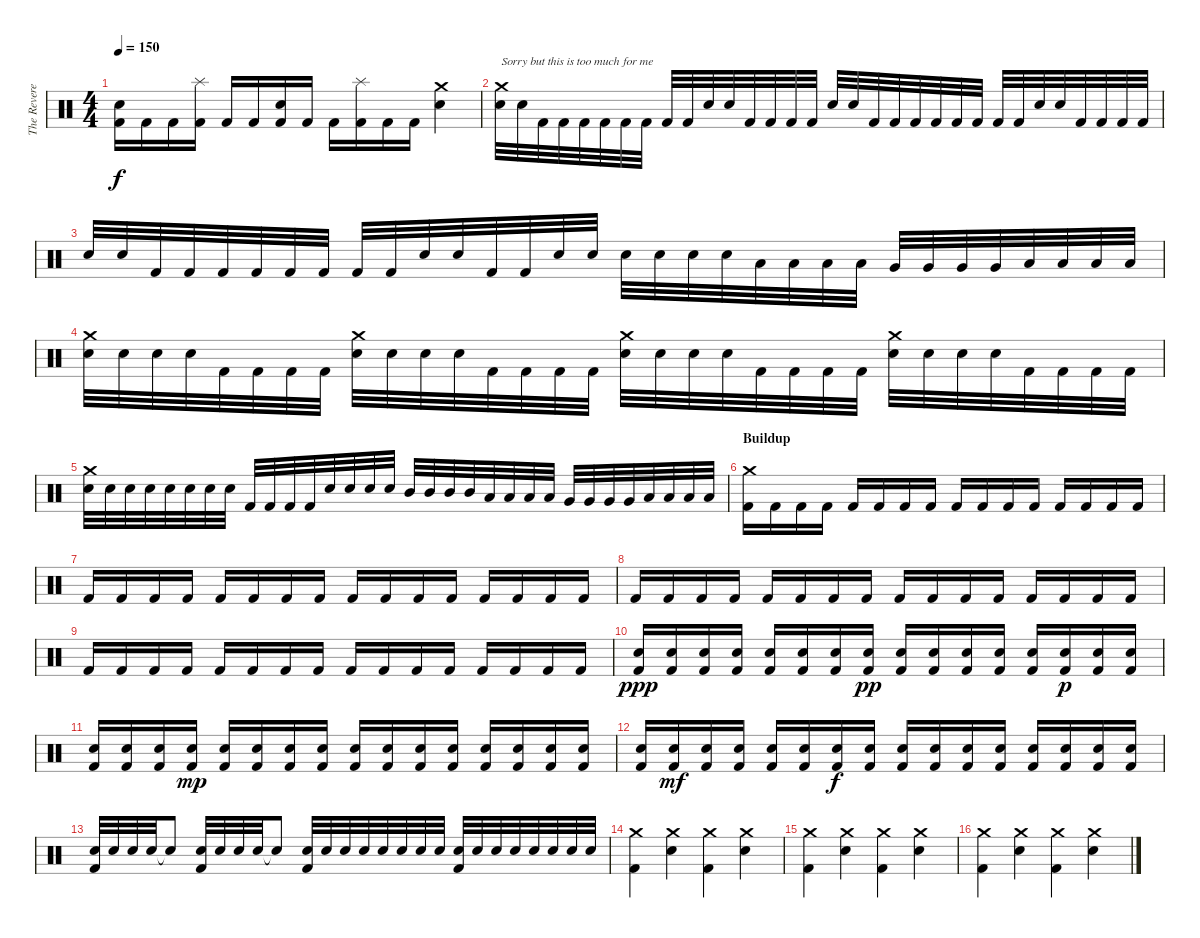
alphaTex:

\track ("The Reverend" "The Revere") {instrument percussion}
\staff {score}
\articulation defaults
\ts (4 4)
\tempo 150
\clef neutral
\ks c
("Electric Snare (hit)" "Kick (hit) 2").16{dy f} "Kick (hit) 2".16 "Kick (hit) 2".16 ("Splash (hit)" "Kick (hit) 2").16 "Kick (hit) 2".16 "Kick (hit) 2".16 ("Electric Snare (hit)" "Kick (hit) 2").16 "Kick (hit) 2".16 "Kick (hit) 2".16 ("Splash (hit)" "Kick (hit) 2").16 "Kick (hit) 2".16 "Kick (hit) 2".16 ("Crash medium (hit)" "Electric Snare (hit)").4 |
("Crash medium (hit)" "Electric Snare (hit)").32{txt "Sorry but this is too much for me"} "Electric Snare (hit)".32 "Kick (hit) 2".32 "Kick (hit) 2".32 "Kick (hit) 2".32 "Kick (hit) 2".32 "Kick (hit) 2".32 "Kick (hit) 2".32 "Kick (hit) 2".32 "Kick (hit) 2".32 "Electric Snare (hit)".32 "Electric Snare (hit)".32 "Kick (hit) 2".32 "Kick (hit) 2".32 "Kick (hit) 2".32 "Kick (hit) 2".32 "Electric Snare (hit)".32 "Electric Snare (hit)".32 "Kick (hit) 2".32 "Kick (hit) 2".32 "Kick (hit) 2".32 "Kick (hit) 2".32 "Kick (hit) 2".32 "Kick (hit) 2".32 "Kick (hit) 2".32 "Kick (hit) 2".32 "Electric Snare (hit)".32 "Electric Snare (hit)".32 "Kick (hit) 2".32 "Kick (hit) 2".32 "Kick (hit) 2".32 "Kick (hit) 2".32 |
"Electric Snare (hit)".32 "Electric Snare (hit)".32 "Kick (hit) 2".32 "Kick (hit) 2".32 "Kick (hit) 2".32 "Kick (hit) 2".32 "Kick (hit) 2".32 "Kick (hit) 2".32 "Kick (hit) 2".32 "Kick (hit) 2".32 "Electric Snare (hit)".32 "Electric Snare (hit)".32 "Kick (hit) 2".32 "Kick (hit) 2".32 "Electric Snare (hit)".32 "Electric Snare (hit)".32 "Electric Snare (hit)".32 "Electric Snare (hit)".32 "Electric Snare (hit)".32 "Electric Snare (hit)".32 "Low Tom (hit)".32 "Low Tom (hit)".32 "Low Tom (hit)".32 "Low Tom (hit)".32 "Very Low Tom (hit)".32 "Very Low Tom (hit)".32 "Very Low Tom (hit)".32 "Very Low Tom (hit)".32 "Low Floor Tom (hit)".32 "Low Floor Tom (hit)".32 "Low Floor Tom (hit)".32 "Low Floor Tom (hit)".32 |
("Crash medium (hit)" "Electric Snare (hit)").32 "Electric Snare (hit)".32 "Electric Snare (hit)".32 "Electric Snare (hit)".32 "Kick (hit) 2".32 "Kick (hit) 2".32 "Kick (hit) 2".32 "Kick (hit) 2".32 ("Crash medium (hit)" "Electric Snare (hit)").32 "Electric Snare (hit)".32 "Electric Snare (hit)".32 "Electric Snare (hit)".32 "Kick (hit) 2".32 "Kick (hit) 2".32 "Kick (hit) 2".32 "Kick (hit) 2".32 ("Crash medium (hit)" "Electric Snare (hit)").32 "Electric Snare (hit)".32 "Electric Snare (hit)".32 "Electric Snare (hit)".32 "Kick (hit) 2".32 "Kick (hit) 2".32 "Kick (hit) 2".32 "Kick (hit) 2".32 ("Crash medium (hit)" "Electric Snare (hit)").32 "Electric Snare (hit)".32 "Electric Snare (hit)".32 "Electric Snare (hit)".32 "Kick (hit) 2".32 "Kick (hit) 2".32 "Kick (hit) 2".32 "Kick (hit) 2".32 |
("Crash medium (hit)" "Electric Snare (hit)").32 "Electric Snare (hit)".32 "Electric Snare (hit)".32 "Electric Snare (hit)".32 "Electric Snare (hit)".32 "Electric Snare (hit)".32 "Electric Snare (hit)".32 "Electric Snare (hit)".32 "Kick (hit) 2".32 "Kick (hit) 2".32 "Kick (hit) 2".32 "Kick (hit) 2".32 "Electric Snare (hit)".32 "Electric Snare (hit)".32 "Electric Snare (hit)".32 "Electric Snare (hit)".32 "Mid Tom (hit)".32 "Mid Tom (hit)".32 "Mid Tom (hit)".32 "Mid Tom (hit)".32 "Low Tom (hit)".32 "Low Tom (hit)".32 "Low Tom (hit)".32 "Low Tom (hit)".32 "Very Low Tom (hit)".32 "Very Low Tom (hit)".32 "Very Low Tom (hit)".32 "Very Low Tom (hit)".32 "Low Floor Tom (hit)".32 "Low Floor Tom (hit)".32 "Low Floor Tom (hit)".32 "Low Floor Tom (hit)".32 |
\section ("" "Buildup")
("Crash medium (hit)" "Kick (hit) 2").16 "Kick (hit) 2".16 "Kick (hit) 2".16 "Kick (hit) 2".16 "Kick (hit) 2".16 "Kick (hit) 2".16 "Kick (hit) 2".16 "Kick (hit) 2".16 "Kick (hit) 2".16 "Kick (hit) 2".16 "Kick (hit) 2".16 "Kick (hit) 2".16 "Kick (hit) 2".16 "Kick (hit) 2".16 "Kick (hit) 2".16 "Kick (hit) 2".16 |
"Kick (hit) 2".16 "Kick (hit) 2".16 "Kick (hit) 2".16 "Kick (hit) 2".16 "Kick (hit) 2".16 "Kick (hit) 2".16 "Kick (hit) 2".16 "Kick (hit) 2".16 "Kick (hit) 2".16 "Kick (hit) 2".16 "Kick (hit) 2".16 "Kick (hit) 2".16 "Kick (hit) 2".16 "Kick (hit) 2".16 "Kick (hit) 2".16 "Kick (hit) 2".16 |
"Kick (hit) 2".16 "Kick (hit) 2".16 "Kick (hit) 2".16 "Kick (hit) 2".16 "Kick (hit) 2".16 "Kick (hit) 2".16 "Kick (hit) 2".16 "Kick (hit) 2".16 "Kick (hit) 2".16 "Kick (hit) 2".16 "Kick (hit) 2".16 "Kick (hit) 2".16 "Kick (hit) 2".16 "Kick (hit) 2".16 "Kick (hit) 2".16 "Kick (hit) 2".16 |
"Kick (hit) 2".16 "Kick (hit) 2".16 "Kick (hit) 2".16 "Kick (hit) 2".16 "Kick (hit) 2".16 "Kick (hit) 2".16 "Kick (hit) 2".16 "Kick (hit) 2".16 "Kick (hit) 2".16 "Kick (hit) 2".16 "Kick (hit) 2".16 "Kick (hit) 2".16 "Kick (hit) 2".16 "Kick (hit) 2".16 "Kick (hit) 2".16 "Kick (hit) 2".16 |
("Electric Snare (hit)" "Kick (hit) 2").16{dy ppp} ("Electric Snare (hit)" "Kick (hit) 2").16 ("Electric Snare (hit)" "Kick (hit) 2").16 ("Electric Snare (hit)" "Kick (hit) 2").16 ("Electric Snare (hit)" "Kick (hit) 2").16 ("Electric Snare (hit)" "Kick (hit) 2").16 ("Electric Snare (hit)" "Kick (hit) 2").16 ("Electric Snare (hit)" "Kick (hit) 2").16{dy pp} ("Electric Snare (hit)" "Kick (hit) 2").16 ("Electric Snare (hit)" "Kick (hit) 2").16 ("Electric Snare (hit)" "Kick (hit) 2").16 ("Electric Snare (hit)" "Kick (hit) 2").16 ("Electric Snare (hit)" "Kick (hit) 2").16 ("Electric Snare (hit)" "Kick (hit) 2").16{dy p} ("Electric Snare (hit)" "Kick (hit) 2").16 ("Electric Snare (hit)" "Kick (hit) 2").16 |
("Electric Snare (hit)" "Kick (hit) 2").16 ("Electric Snare (hit)" "Kick (hit) 2").16 ("Electric Snare (hit)" "Kick (hit) 2").16 ("Electric Snare (hit)" "Kick (hit) 2").16{dy mp} ("Electric Snare (hit)" "Kick (hit) 2").16 ("Electric Snare (hit)" "Kick (hit) 2").16 ("Electric Snare (hit)" "Kick (hit) 2").16 ("Electric Snare (hit)" "Kick (hit) 2").16 ("Electric Snare (hit)" "Kick (hit) 2").16 ("Electric Snare (hit)" "Kick (hit) 2").16 ("Electric Snare (hit)" "Kick (hit) 2").16 ("Electric Snare (hit)" "Kick (hit) 2").16 ("Electric Snare (hit)" "Kick (hit) 2").16 ("Electric Snare (hit)" "Kick (hit) 2").16 ("Electric Snare (hit)" "Kick (hit) 2").16 ("Electric Snare (hit)" "Kick (hit) 2").16 |
("Electric Snare (hit)" "Kick (hit) 2").16 ("Electric Snare (hit)" "Kick (hit) 2").16{dy mf} ("Electric Snare (hit)" "Kick (hit) 2").16 ("Electric Snare (hit)" "Kick (hit) 2").16 ("Electric Snare (hit)" "Kick (hit) 2").16 ("Electric Snare (hit)" "Kick (hit) 2").16 ("Electric Snare (hit)" "Kick (hit) 2").16{dy f} ("Electric Snare (hit)" "Kick (hit) 2").16 ("Electric Snare (hit)" "Kick (hit) 2").16 ("Electric Snare (hit)" "Kick (hit) 2").16 ("Electric Snare (hit)" "Kick (hit) 2").16 ("Electric Snare (hit)" "Kick (hit) 2").16 ("Electric Snare (hit)" "Kick (hit) 2").16 ("Electric Snare (hit)" "Kick (hit) 2").16 ("Electric Snare (hit)" "Kick (hit) 2").16 ("Electric Snare (hit)" "Kick (hit) 2").16 |
("Electric Snare (hit)" "Kick (hit) 2").32 "Electric Snare (hit)".32 "Electric Snare (hit)".32 "Electric Snare (hit)".32 "Snare (hit)"{t}.8 ("Electric Snare (hit)" "Kick (hit) 2").32 "Electric Snare (hit)".32 "Electric Snare (hit)".32 "Electric Snare (hit)".32 "Snare (hit)"{t}.8 ("Electric Snare (hit)" "Kick (hit) 2").32 "Electric Snare (hit)".32 "Electric Snare (hit)".32 "Electric Snare (hit)".32 "Electric Snare (hit)".32 "Electric Snare (hit)".32 "Electric Snare (hit)".32 "Electric Snare (hit)".32 ("Electric Snare (hit)" "Kick (hit) 2").32 "Electric Snare (hit)".32 "Electric Snare (hit)".32 "Electric Snare (hit)".32 "Electric Snare (hit)".32 "Electric Snare (hit)".32 "Electric Snare (hit)".32 "Electric Snare (hit)".32 |
("Crash medium (hit)" "Kick (hit) 2").4 ("Crash medium (hit)" "Electric Snare (hit)").4 ("Crash medium (hit)" "Kick (hit) 2").4 ("Crash medium (hit)" "Electric Snare (hit)").4 |
("Crash medium (hit)" "Kick (hit) 2").4 ("Crash medium (hit)" "Electric Snare (hit)").4 ("Crash medium (hit)" "Kick (hit) 2").4 ("Crash medium (hit)" "Electric Snare (hit)").4 |
("Crash medium (hit)" "Kick (hit) 2").4 ("Crash medium (hit)" "Electric Snare (hit)").4 ("Crash medium (hit)" "Kick (hit) 2").4 ("Crash medium (hit)" "Electric Snare (hit)").4
